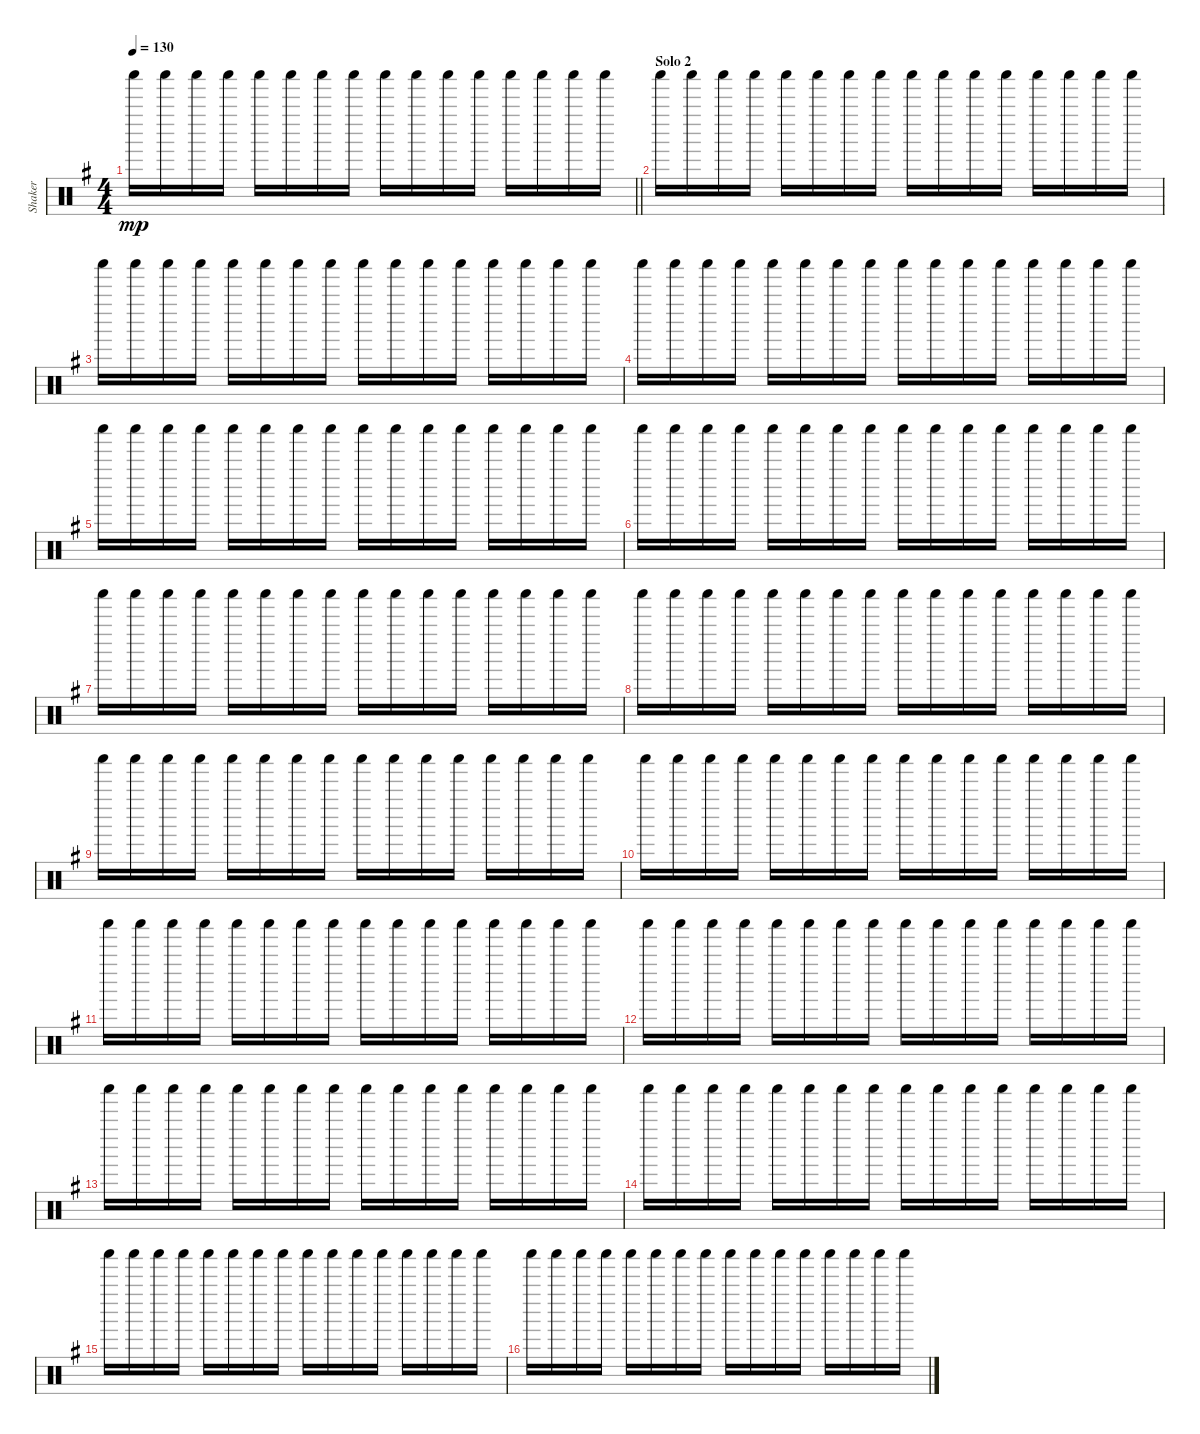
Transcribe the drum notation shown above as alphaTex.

\track ("Shaker" "Shaker") {instrument percussion}
\staff {score}
\articulation defaults
\ts (4 4)
\tempo 130
\clef neutral
\barLineRight lightlight
\ks g "Shaker (hit)".16{dy mp} "Shaker (hit)".16 "Shaker (hit)".16 "Shaker (hit)".16 "Shaker (hit)".16 "Shaker (hit)".16 "Shaker (hit)".16 "Shaker (hit)".16 "Shaker (hit)".16 "Shaker (hit)".16 "Shaker (hit)".16 "Shaker (hit)".16 "Shaker (hit)".16 "Shaker (hit)".16 "Shaker (hit)".16 "Shaker (hit)".16
|
\section ("" "Solo 2")
"Shaker (hit)".16 "Shaker (hit)".16 "Shaker (hit)".16 "Shaker (hit)".16 "Shaker (hit)".16 "Shaker (hit)".16 "Shaker (hit)".16 "Shaker (hit)".16 "Shaker (hit)".16 "Shaker (hit)".16 "Shaker (hit)".16 "Shaker (hit)".16 "Shaker (hit)".16 "Shaker (hit)".16 "Shaker (hit)".16 "Shaker (hit)".16 |
"Shaker (hit)".16 "Shaker (hit)".16 "Shaker (hit)".16 "Shaker (hit)".16 "Shaker (hit)".16 "Shaker (hit)".16 "Shaker (hit)".16 "Shaker (hit)".16 "Shaker (hit)".16 "Shaker (hit)".16 "Shaker (hit)".16 "Shaker (hit)".16 "Shaker (hit)".16 "Shaker (hit)".16 "Shaker (hit)".16 "Shaker (hit)".16 |
"Shaker (hit)".16 "Shaker (hit)".16 "Shaker (hit)".16 "Shaker (hit)".16 "Shaker (hit)".16 "Shaker (hit)".16 "Shaker (hit)".16 "Shaker (hit)".16 "Shaker (hit)".16 "Shaker (hit)".16 "Shaker (hit)".16 "Shaker (hit)".16 "Shaker (hit)".16 "Shaker (hit)".16 "Shaker (hit)".16 "Shaker (hit)".16 |
"Shaker (hit)".16 "Shaker (hit)".16 "Shaker (hit)".16 "Shaker (hit)".16 "Shaker (hit)".16 "Shaker (hit)".16 "Shaker (hit)".16 "Shaker (hit)".16 "Shaker (hit)".16 "Shaker (hit)".16 "Shaker (hit)".16 "Shaker (hit)".16 "Shaker (hit)".16 "Shaker (hit)".16 "Shaker (hit)".16 "Shaker (hit)".16 |
"Shaker (hit)".16 "Shaker (hit)".16 "Shaker (hit)".16 "Shaker (hit)".16 "Shaker (hit)".16 "Shaker (hit)".16 "Shaker (hit)".16 "Shaker (hit)".16 "Shaker (hit)".16 "Shaker (hit)".16 "Shaker (hit)".16 "Shaker (hit)".16 "Shaker (hit)".16 "Shaker (hit)".16 "Shaker (hit)".16 "Shaker (hit)".16 |
"Shaker (hit)".16 "Shaker (hit)".16 "Shaker (hit)".16 "Shaker (hit)".16 "Shaker (hit)".16 "Shaker (hit)".16 "Shaker (hit)".16 "Shaker (hit)".16 "Shaker (hit)".16 "Shaker (hit)".16 "Shaker (hit)".16 "Shaker (hit)".16 "Shaker (hit)".16 "Shaker (hit)".16 "Shaker (hit)".16 "Shaker (hit)".16 |
"Shaker (hit)".16 "Shaker (hit)".16 "Shaker (hit)".16 "Shaker (hit)".16 "Shaker (hit)".16 "Shaker (hit)".16 "Shaker (hit)".16 "Shaker (hit)".16 "Shaker (hit)".16 "Shaker (hit)".16 "Shaker (hit)".16 "Shaker (hit)".16 "Shaker (hit)".16 "Shaker (hit)".16 "Shaker (hit)".16 "Shaker (hit)".16 |
"Shaker (hit)".16 "Shaker (hit)".16 "Shaker (hit)".16 "Shaker (hit)".16 "Shaker (hit)".16 "Shaker (hit)".16 "Shaker (hit)".16 "Shaker (hit)".16 "Shaker (hit)".16 "Shaker (hit)".16 "Shaker (hit)".16 "Shaker (hit)".16 "Shaker (hit)".16 "Shaker (hit)".16 "Shaker (hit)".16 "Shaker (hit)".16 |
"Shaker (hit)".16 "Shaker (hit)".16 "Shaker (hit)".16 "Shaker (hit)".16 "Shaker (hit)".16 "Shaker (hit)".16 "Shaker (hit)".16 "Shaker (hit)".16 "Shaker (hit)".16 "Shaker (hit)".16 "Shaker (hit)".16 "Shaker (hit)".16 "Shaker (hit)".16 "Shaker (hit)".16 "Shaker (hit)".16 "Shaker (hit)".16 |
"Shaker (hit)".16 "Shaker (hit)".16 "Shaker (hit)".16 "Shaker (hit)".16 "Shaker (hit)".16 "Shaker (hit)".16 "Shaker (hit)".16 "Shaker (hit)".16 "Shaker (hit)".16 "Shaker (hit)".16 "Shaker (hit)".16 "Shaker (hit)".16 "Shaker (hit)".16 "Shaker (hit)".16 "Shaker (hit)".16 "Shaker (hit)".16 |
"Shaker (hit)".16 "Shaker (hit)".16 "Shaker (hit)".16 "Shaker (hit)".16 "Shaker (hit)".16 "Shaker (hit)".16 "Shaker (hit)".16 "Shaker (hit)".16 "Shaker (hit)".16 "Shaker (hit)".16 "Shaker (hit)".16 "Shaker (hit)".16 "Shaker (hit)".16 "Shaker (hit)".16 "Shaker (hit)".16 "Shaker (hit)".16 |
"Shaker (hit)".16 "Shaker (hit)".16 "Shaker (hit)".16 "Shaker (hit)".16 "Shaker (hit)".16 "Shaker (hit)".16 "Shaker (hit)".16 "Shaker (hit)".16 "Shaker (hit)".16 "Shaker (hit)".16 "Shaker (hit)".16 "Shaker (hit)".16 "Shaker (hit)".16 "Shaker (hit)".16 "Shaker (hit)".16 "Shaker (hit)".16 |
"Shaker (hit)".16 "Shaker (hit)".16 "Shaker (hit)".16 "Shaker (hit)".16 "Shaker (hit)".16 "Shaker (hit)".16 "Shaker (hit)".16 "Shaker (hit)".16 "Shaker (hit)".16 "Shaker (hit)".16 "Shaker (hit)".16 "Shaker (hit)".16 "Shaker (hit)".16 "Shaker (hit)".16 "Shaker (hit)".16 "Shaker (hit)".16 |
"Shaker (hit)".16 "Shaker (hit)".16 "Shaker (hit)".16 "Shaker (hit)".16 "Shaker (hit)".16 "Shaker (hit)".16 "Shaker (hit)".16 "Shaker (hit)".16 "Shaker (hit)".16 "Shaker (hit)".16 "Shaker (hit)".16 "Shaker (hit)".16 "Shaker (hit)".16 "Shaker (hit)".16 "Shaker (hit)".16 "Shaker (hit)".16 |
"Shaker (hit)".16 "Shaker (hit)".16 "Shaker (hit)".16 "Shaker (hit)".16 "Shaker (hit)".16 "Shaker (hit)".16 "Shaker (hit)".16 "Shaker (hit)".16 "Shaker (hit)".16 "Shaker (hit)".16 "Shaker (hit)".16 "Shaker (hit)".16 "Shaker (hit)".16 "Shaker (hit)".16 "Shaker (hit)".16 "Shaker (hit)".16
